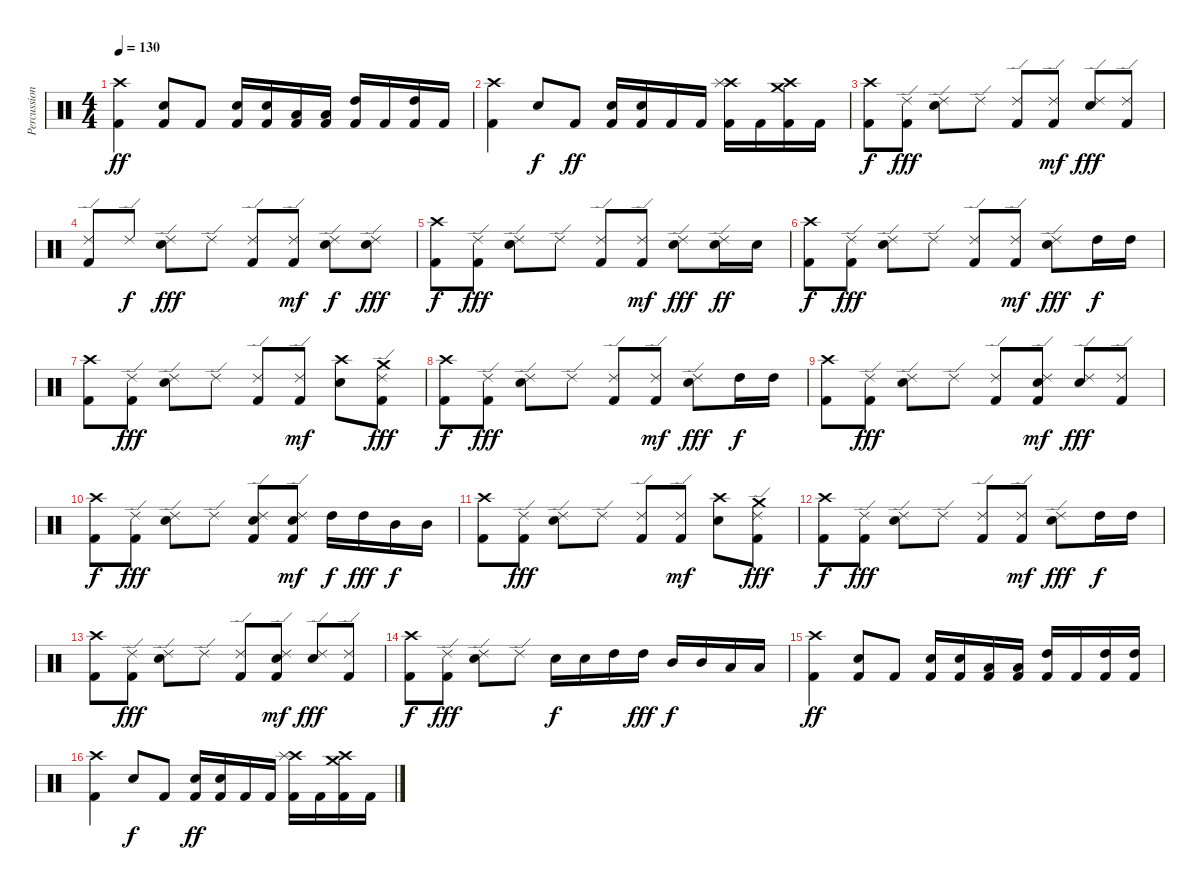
\track ("Percussion" "Percussion") {instrument percussion}
\staff {score}
\articulation defaults
\ts (4 4)
\tempo 130
\clef neutral
\ks c
("Crash high (hit)" "Kick (hit) 2").4{dy ff} ("Snare (hit) 2" "Kick (hit) 2").8 "Kick (hit) 2".8 ("Snare (hit) 2" "Kick (hit) 2").16 ("Snare (hit) 2" "Kick (hit) 2").16 ("Low Tom (hit)" "Kick (hit) 2").16 ("Low Tom (hit)" "Kick (hit) 2").16 ("High Tom (hit)" "Kick (hit) 2").16 "Kick (hit) 2".16 ("High Tom (hit)" "Kick (hit) 2").16 "Kick (hit) 2".16 |
("Crash high (hit)" "Kick (hit) 2").4 "Snare (hit) 2".8{dy f} "Kick (hit) 2".8{dy ff} ("Snare (hit) 2" "Kick (hit) 2").16 ("Snare (hit) 2" "Kick (hit) 2").16 "Kick (hit) 2".16 "Kick (hit) 2".16 ("Crash high (hit)" "Splash (hit)" "Kick (hit) 2").16 "Kick (hit) 2".16 ("Crash high (hit)" "Crash medium (hit)" "Kick (hit) 2").16 "Kick (hit) 2".16 |
("Crash high (hit)" "Kick (hit) 2").8{dy f} ("Ride (edge) 2" "Kick (hit) 2").8{dy fff} ("Ride (edge) 2" "Snare (hit) 2").8 "Ride (edge) 2".8 ("Ride (edge) 2" "Kick (hit) 2").8 ("Ride (edge) 2" "Kick (hit) 2").8{dy mf} ("Ride (edge) 2" "Snare (hit) 2").8{dy fff} ("Ride (edge) 2" "Kick (hit) 2").8 |
("Ride (edge) 2" "Kick (hit) 2").8 "Ride (edge) 2".8{dy f} ("Ride (edge) 2" "Snare (hit) 2").8{dy fff} "Ride (edge) 2".8 ("Ride (edge) 2" "Kick (hit) 2").8 ("Ride (edge) 2" "Kick (hit) 2").8{dy mf} ("Ride (edge) 2" "Snare (hit) 2").8{dy f} ("Ride (edge) 2" "Snare (hit) 2").8{dy fff} |
("Crash high (hit)" "Kick (hit) 2").8{dy f} ("Ride (edge) 2" "Kick (hit) 2").8{dy fff} ("Ride (edge) 2" "Snare (hit) 2").8 "Ride (edge) 2".8 ("Ride (edge) 2" "Kick (hit) 2").8 ("Ride (edge) 2" "Kick (hit) 2").8{dy mf} ("Ride (edge) 2" "Snare (hit) 2").8{dy fff} ("Ride (edge) 2" "Snare (hit) 2").16{dy ff} "Snare (hit) 2".16 |
("Crash high (hit)" "Kick (hit) 2").8{dy f} ("Ride (edge) 2" "Kick (hit) 2").8{dy fff} ("Ride (edge) 2" "Snare (hit) 2").8 "Ride (edge) 2".8 ("Ride (edge) 2" "Kick (hit) 2").8 ("Ride (edge) 2" "Kick (hit) 2").8{dy mf} ("Ride (edge) 2" "Snare (hit) 2").8{dy fff} "High Tom (hit)".16{dy f} "High Tom (hit)".16 |
("Crash high (hit)" "Kick (hit) 2").8 ("Ride (edge) 2" "Kick (hit) 2").8{dy fff} ("Ride (edge) 2" "Snare (hit) 2").8 "Ride (edge) 2".8 ("Ride (edge) 2" "Kick (hit) 2").8 ("Ride (edge) 2" "Kick (hit) 2").8{dy mf} ("Crash high (hit)" "Snare (hit) 2").8 ("Crash medium (hit)" "Ride (edge) 2" "Kick (hit) 2").8{dy fff} |
("Crash high (hit)" "Kick (hit) 2").8{dy f} ("Ride (edge) 2" "Kick (hit) 2").8{dy fff} ("Ride (edge) 2" "Snare (hit) 2").8 "Ride (edge) 2".8 ("Ride (edge) 2" "Kick (hit) 2").8 ("Ride (edge) 2" "Kick (hit) 2").8{dy mf} ("Ride (edge) 2" "Snare (hit) 2").8{dy fff} "High Tom (hit)".16{dy f} "High Tom (hit)".16 |
("Crash high (hit)" "Kick (hit) 2").8 ("Ride (edge) 2" "Kick (hit) 2").8{dy fff} ("Ride (edge) 2" "Snare (hit) 2").8 "Ride (edge) 2".8 ("Ride (edge) 2" "Kick (hit) 2").8 ("Ride (edge) 2" "Snare (hit) 2" "Kick (hit) 2").8{dy mf} ("Ride (edge) 2" "Snare (hit) 2").8{dy fff} ("Ride (edge) 2" "Kick (hit) 2").8 |
("Crash high (hit)" "Kick (hit) 2").8{dy f} ("Ride (edge) 2" "Kick (hit) 2").8{dy fff} ("Ride (edge) 2" "Snare (hit) 2").8 "Ride (edge) 2".8 ("Ride (edge) 2" "Snare (hit) 2" "Kick (hit) 2").8 ("Ride (edge) 2" "Snare (hit) 2" "Kick (hit) 2").8{dy mf} "High Tom (hit)".16{dy f} "High Tom (hit)".16{dy fff} "Mid Tom (hit)".16{dy f} "Mid Tom (hit)".16 |
("Crash high (hit)" "Kick (hit) 2").8 ("Ride (edge) 2" "Kick (hit) 2").8{dy fff} ("Ride (edge) 2" "Snare (hit) 2").8 "Ride (edge) 2".8 ("Ride (edge) 2" "Kick (hit) 2").8 ("Ride (edge) 2" "Kick (hit) 2").8{dy mf} ("Crash high (hit)" "Snare (hit) 2").8 ("Crash medium (hit)" "Ride (edge) 2" "Kick (hit) 2").8{dy fff} |
("Crash high (hit)" "Kick (hit) 2").8{dy f} ("Ride (edge) 2" "Kick (hit) 2").8{dy fff} ("Ride (edge) 2" "Snare (hit) 2").8 "Ride (edge) 2".8 ("Ride (edge) 2" "Kick (hit) 2").8 ("Ride (edge) 2" "Kick (hit) 2").8{dy mf} ("Ride (edge) 2" "Snare (hit) 2").8{dy fff} "High Tom (hit)".16{dy f} "High Tom (hit)".16 |
("Crash high (hit)" "Kick (hit) 2").8 ("Ride (edge) 2" "Kick (hit) 2").8{dy fff} ("Ride (edge) 2" "Snare (hit) 2").8 "Ride (edge) 2".8 ("Ride (edge) 2" "Kick (hit) 2").8 ("Ride (edge) 2" "Snare (hit) 2" "Kick (hit) 2").8{dy mf} ("Ride (edge) 2" "Snare (hit) 2").8{dy fff} ("Ride (edge) 2" "Kick (hit) 2").8 |
("Crash high (hit)" "Kick (hit) 2").8{dy f} ("Ride (edge) 2" "Kick (hit) 2").8{dy fff} ("Ride (edge) 2" "Snare (hit) 2").8 "Ride (edge) 2".8 "Snare (hit) 2".16{dy f} "Snare (hit) 2".16 "High Tom (hit)".16 "High Tom (hit)".16{dy fff} "Mid Tom (hit)".16{dy f} "Mid Tom (hit)".16 "Low Tom (hit)".16 "Low Tom (hit)".16 |
("Crash high (hit)" "Kick (hit) 2").4{dy ff} ("Snare (hit) 2" "Kick (hit) 2").8 "Kick (hit) 2".8 ("Snare (hit) 2" "Kick (hit) 2").16 ("Snare (hit) 2" "Kick (hit) 2").16 ("Low Tom (hit)" "Kick (hit) 2").16 ("Low Tom (hit)" "Kick (hit) 2").16 ("High Tom (hit)" "Kick (hit) 2").16 "Kick (hit) 2".16 ("High Tom (hit)" "Kick (hit) 2").16 ("High Tom (hit)" "Kick (hit) 2").16 |
("Crash high (hit)" "Kick (hit) 2").4 "Snare (hit) 2".8{dy f} "Kick (hit) 2".8 ("Snare (hit) 2" "Kick (hit) 2").16{dy ff} ("Snare (hit) 2" "Kick (hit) 2").16 "Kick (hit) 2".16 "Kick (hit) 2".16 ("Crash high (hit)" "Splash (hit)" "Kick (hit) 2").16 "Kick (hit) 2".16 ("Crash high (hit)" "Crash medium (hit)" "Kick (hit) 2").16 "Kick (hit) 2".16
